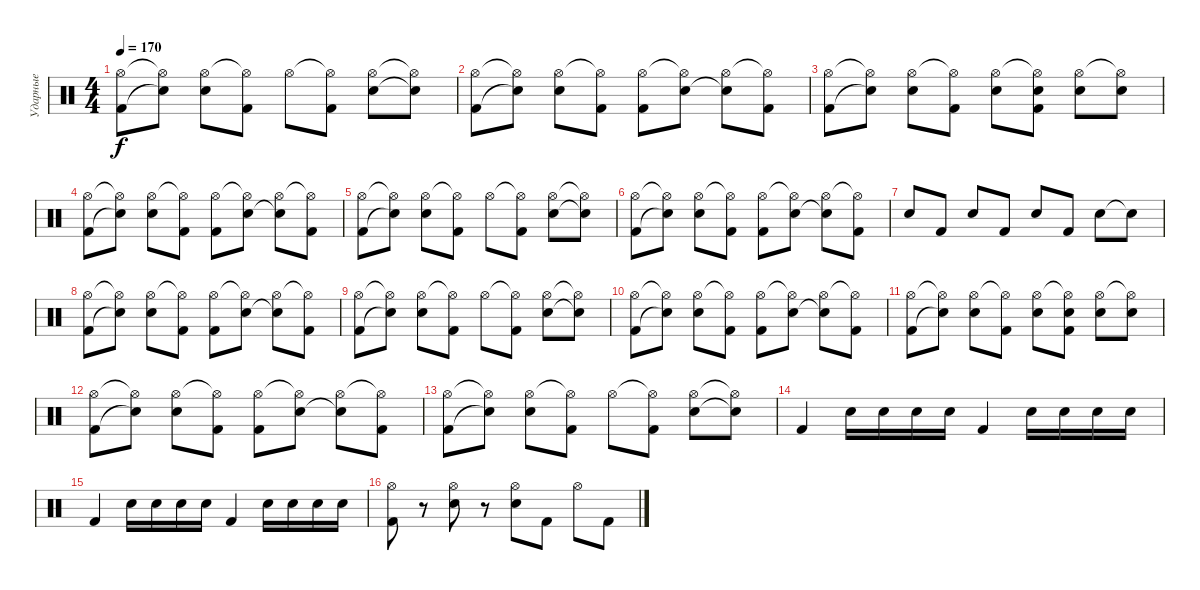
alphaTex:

\track ("Ударные" "Ударные") {instrument percussion}
\staff {score}
\articulation defaults
\ts (4 4)
\tempo 170
\clef neutral
\ks c
("Hi-Hat (open)" "Kick (hit) 2").8{dy f} ("Hi-Hat (open)"{t} "Snare (hit)"{t}).8 ("Hi-Hat (open)" "Electric Snare (hit)").8 ("Hi-Hat (open)"{t} "Kick (hit) 2").8 "Hi-Hat (open)".8 ("Hi-Hat (open)"{t} "Kick (hit) 2").8 ("Hi-Hat (open)" "Electric Snare (hit)").8 ("Hi-Hat (open)"{t} "Snare (hit)"{t}).8 |
("Hi-Hat (open)" "Kick (hit) 2").8 ("Hi-Hat (open)"{t} "Snare (hit)"{t}).8 ("Hi-Hat (open)" "Electric Snare (hit)").8 ("Hi-Hat (open)"{t} "Kick (hit) 2").8 ("Hi-Hat (open)" "Kick (hit) 2").8 ("Hi-Hat (open)"{t} "Electric Snare (hit)").8 ("Hi-Hat (open)" "Snare (hit)"{t}).8 ("Hi-Hat (open)"{t} "Kick (hit) 2").8 |
("Hi-Hat (open)" "Kick (hit) 2").8 ("Hi-Hat (open)"{t} "Snare (hit)"{t}).8 ("Hi-Hat (open)" "Electric Snare (hit)").8 ("Hi-Hat (open)"{t} "Kick (hit) 2").8 ("Hi-Hat (open)" "Electric Snare (hit)").8 ("Hi-Hat (open)"{t} "Electric Snare (hit)" "Kick (hit) 2").8 ("Hi-Hat (open)" "Electric Snare (hit)").8 ("Hi-Hat (open)"{t} "Electric Snare (hit)").8 |
("Hi-Hat (open)" "Kick (hit) 2").8 ("Hi-Hat (open)"{t} "Snare (hit)"{t}).8 ("Hi-Hat (open)" "Electric Snare (hit)").8 ("Hi-Hat (open)"{t} "Kick (hit) 2").8 ("Hi-Hat (open)" "Kick (hit) 2").8 ("Hi-Hat (open)"{t} "Electric Snare (hit)").8 ("Hi-Hat (open)" "Snare (hit)"{t}).8 ("Hi-Hat (open)"{t} "Kick (hit) 2").8 |
("Hi-Hat (open)" "Kick (hit) 2").8 ("Hi-Hat (open)"{t} "Snare (hit)"{t}).8 ("Hi-Hat (open)" "Electric Snare (hit)").8 ("Hi-Hat (open)"{t} "Kick (hit) 2").8 "Hi-Hat (open)".8 ("Hi-Hat (open)"{t} "Kick (hit) 2").8 ("Hi-Hat (open)" "Electric Snare (hit)").8 ("Hi-Hat (open)"{t} "Snare (hit)"{t}).8 |
("Hi-Hat (open)" "Kick (hit) 2").8 ("Hi-Hat (open)"{t} "Snare (hit)"{t}).8 ("Hi-Hat (open)" "Electric Snare (hit)").8 ("Hi-Hat (open)"{t} "Kick (hit) 2").8 ("Hi-Hat (open)" "Kick (hit) 2").8 ("Hi-Hat (open)"{t} "Electric Snare (hit)").8 ("Hi-Hat (open)" "Snare (hit)"{t}).8 ("Hi-Hat (open)"{t} "Kick (hit) 2").8 |
"Electric Snare (hit)".8 "Kick (hit) 2".8 "Electric Snare (hit)".8 "Kick (hit) 2".8 "Electric Snare (hit)".8 "Kick (hit) 2".8 "Electric Snare (hit)".8 "Snare (hit)"{t}.8 |
("Hi-Hat (open)" "Kick (hit) 2").8 ("Hi-Hat (open)"{t} "Snare (hit)"{t}).8 ("Hi-Hat (open)" "Electric Snare (hit)").8 ("Hi-Hat (open)"{t} "Kick (hit) 2").8 ("Hi-Hat (open)" "Kick (hit) 2").8 ("Hi-Hat (open)"{t} "Electric Snare (hit)").8 ("Hi-Hat (open)" "Snare (hit)"{t}).8 ("Hi-Hat (open)"{t} "Kick (hit) 2").8 |
("Hi-Hat (open)" "Kick (hit) 2").8 ("Hi-Hat (open)"{t} "Snare (hit)"{t}).8 ("Hi-Hat (open)" "Electric Snare (hit)").8 ("Hi-Hat (open)"{t} "Kick (hit) 2").8 "Hi-Hat (open)".8 ("Hi-Hat (open)"{t} "Kick (hit) 2").8 ("Hi-Hat (open)" "Electric Snare (hit)").8 ("Hi-Hat (open)"{t} "Snare (hit)"{t}).8 |
("Hi-Hat (open)" "Kick (hit) 2").8 ("Hi-Hat (open)"{t} "Snare (hit)"{t}).8 ("Hi-Hat (open)" "Electric Snare (hit)").8 ("Hi-Hat (open)"{t} "Kick (hit) 2").8 ("Hi-Hat (open)" "Kick (hit) 2").8 ("Hi-Hat (open)"{t} "Electric Snare (hit)").8 ("Hi-Hat (open)" "Snare (hit)"{t}).8 ("Hi-Hat (open)"{t} "Kick (hit) 2").8 |
("Hi-Hat (open)" "Kick (hit) 2").8 ("Hi-Hat (open)"{t} "Snare (hit)"{t}).8 ("Hi-Hat (open)" "Electric Snare (hit)").8 ("Hi-Hat (open)"{t} "Kick (hit) 2").8 ("Hi-Hat (open)" "Electric Snare (hit)").8 ("Hi-Hat (open)"{t} "Electric Snare (hit)" "Kick (hit) 2").8 ("Hi-Hat (open)" "Electric Snare (hit)").8 ("Hi-Hat (open)"{t} "Electric Snare (hit)").8 |
("Hi-Hat (open)" "Kick (hit) 2").8 ("Hi-Hat (open)"{t} "Snare (hit)"{t}).8 ("Hi-Hat (open)" "Electric Snare (hit)").8 ("Hi-Hat (open)"{t} "Kick (hit) 2").8 ("Hi-Hat (open)" "Kick (hit) 2").8 ("Hi-Hat (open)"{t} "Electric Snare (hit)").8 ("Hi-Hat (open)" "Snare (hit)"{t}).8 ("Hi-Hat (open)"{t} "Kick (hit) 2").8 |
("Hi-Hat (open)" "Kick (hit) 2").8 ("Hi-Hat (open)"{t} "Snare (hit)"{t}).8 ("Hi-Hat (open)" "Electric Snare (hit)").8 ("Hi-Hat (open)"{t} "Kick (hit) 2").8 "Hi-Hat (open)".8 ("Hi-Hat (open)"{t} "Kick (hit) 2").8 ("Hi-Hat (open)" "Electric Snare (hit)").8 ("Hi-Hat (open)"{t} "Snare (hit)"{t}).8 |
"Kick (hit) 2".4 "Electric Snare (hit)".16 "Electric Snare (hit)".16 "Electric Snare (hit)".16 "Electric Snare (hit)".16 "Kick (hit) 2".4 "Electric Snare (hit)".16 "Electric Snare (hit)".16 "Electric Snare (hit)".16 "Electric Snare (hit)".16 |
"Kick (hit) 2".4 "Electric Snare (hit)".16 "Electric Snare (hit)".16 "Electric Snare (hit)".16 "Electric Snare (hit)".16 "Kick (hit) 2".4 "Electric Snare (hit)".16 "Electric Snare (hit)".16 "Electric Snare (hit)".16 "Electric Snare (hit)".16 |
("Hi-Hat (open)" "Kick (hit) 2").8 r.8 ("Hi-Hat (open)" "Electric Snare (hit)").8 r.8 ("Hi-Hat (open)" "Electric Snare (hit)").8 "Kick (hit) 2".8 "Hi-Hat (open)".8 "Kick (hit) 2".8
